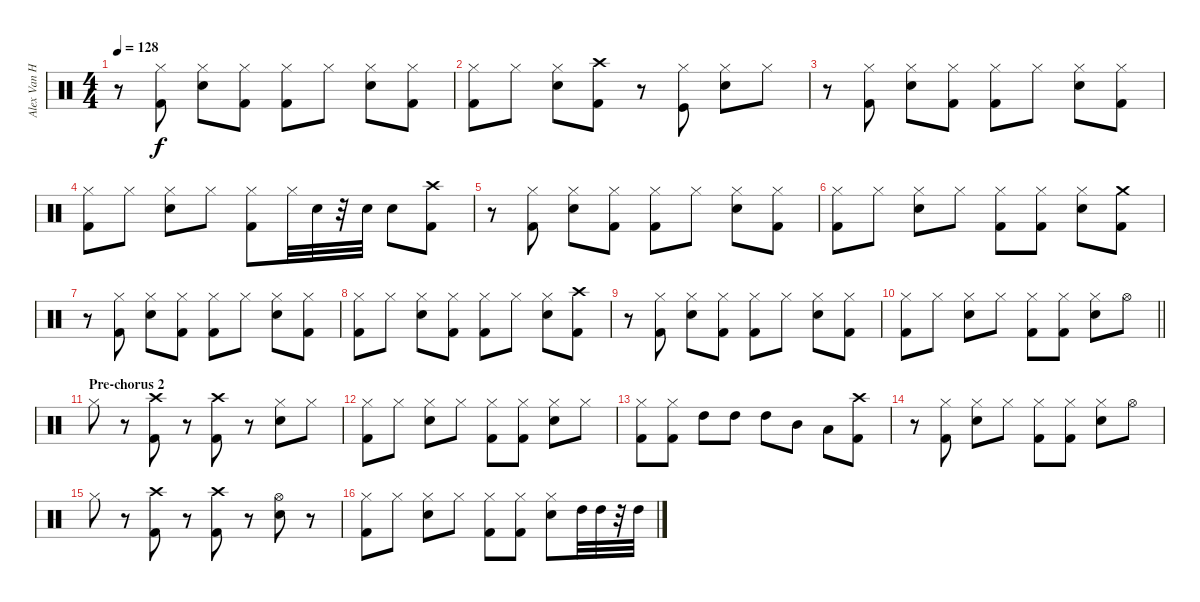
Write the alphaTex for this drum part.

\track ("Alex Van Halen" "Alex Van H") {instrument percussion}
\staff {score}
\articulation defaults
\ts (4 4)
\tempo 128
\clef neutral
\ks c
r.8{dy f} ("Kick (hit) 2" "Hi-Hat (closed)").8 ("Snare (hit) 2" "Hi-Hat (closed)").8 ("Kick (hit) 2" "Hi-Hat (closed)").8 ("Kick (hit) 2" "Hi-Hat (closed)").8 "Hi-Hat (closed)".8 ("Snare (hit) 2" "Hi-Hat (closed)").8 ("Kick (hit) 2" "Hi-Hat (closed)").8 |
("Kick (hit) 2" "Hi-Hat (closed)").8 "Hi-Hat (closed)".8 ("Snare (hit) 2" "Hi-Hat (closed)").8 ("Kick (hit) 2" "Crash high (hit)").8 r.8 ("Kick (hit)" "Hi-Hat (closed)").8 ("Snare (hit) 2" "Hi-Hat (closed)").8 "Hi-Hat (closed)".8 |
r.8 ("Kick (hit) 2" "Hi-Hat (closed)").8 ("Snare (hit) 2" "Hi-Hat (closed)").8 ("Kick (hit) 2" "Hi-Hat (closed)").8 ("Kick (hit) 2" "Hi-Hat (closed)").8 "Hi-Hat (closed)".8 ("Snare (hit) 2" "Hi-Hat (closed)").8 ("Kick (hit) 2" "Hi-Hat (closed)").8 |
("Kick (hit) 2" "Hi-Hat (closed)").8 "Hi-Hat (closed)".8 ("Snare (hit) 2" "Hi-Hat (closed)").8 "Hi-Hat (closed)".8 ("Kick (hit) 2" "Hi-Hat (closed)").8 "Hi-Hat (closed)".32 "Snare (hit) 2".32 r.32 "Snare (hit) 2".32 "Snare (hit) 2".8 ("Crash high (hit)" "Kick (hit) 2").8 |
r.8 ("Kick (hit) 2" "Hi-Hat (closed)").8 ("Snare (hit) 2" "Hi-Hat (closed)").8 ("Kick (hit) 2" "Hi-Hat (closed)").8 ("Kick (hit) 2" "Hi-Hat (closed)").8 "Hi-Hat (closed)".8 ("Snare (hit) 2" "Hi-Hat (closed)").8 ("Kick (hit) 2" "Hi-Hat (closed)").8 |
("Kick (hit) 2" "Hi-Hat (closed)").8 "Hi-Hat (closed)".8 ("Snare (hit) 2" "Hi-Hat (closed)").8 "Hi-Hat (closed)".8 ("Kick (hit) 2" "Hi-Hat (closed)").8 ("Kick (hit) 2" "Hi-Hat (closed)").8 ("Snare (hit) 2" "Hi-Hat (closed)").8 ("Crash medium (hit)" "Kick (hit) 2").8 |
r.8 ("Kick (hit) 2" "Hi-Hat (closed)").8 ("Snare (hit) 2" "Hi-Hat (closed)").8 ("Kick (hit) 2" "Hi-Hat (closed)").8 ("Kick (hit) 2" "Hi-Hat (closed)").8 "Hi-Hat (closed)".8 ("Snare (hit) 2" "Hi-Hat (closed)").8 ("Kick (hit) 2" "Hi-Hat (closed)").8 |
("Kick (hit) 2" "Hi-Hat (closed)").8 "Hi-Hat (closed)".8 ("Snare (hit) 2" "Hi-Hat (closed)").8 ("Kick (hit) 2" "Hi-Hat (closed)").8 ("Kick (hit) 2" "Hi-Hat (closed)").8 "Hi-Hat (closed)".8 ("Snare (hit) 2" "Hi-Hat (closed)").8 ("Kick (hit) 2" "Crash high (hit)").8 |
r.8 ("Kick (hit) 2" "Hi-Hat (closed)").8 ("Snare (hit) 2" "Hi-Hat (closed)").8 ("Kick (hit) 2" "Hi-Hat (closed)").8 ("Kick (hit) 2" "Hi-Hat (closed)").8 "Hi-Hat (closed)".8 ("Snare (hit) 2" "Hi-Hat (closed)").8 ("Kick (hit) 2" "Hi-Hat (closed)").8 |
\barLineRight lightlight
("Kick (hit) 2" "Hi-Hat (closed)").8 "Hi-Hat (closed)".8 ("Snare (hit) 2" "Hi-Hat (closed)").8 "Hi-Hat (closed)".8 ("Kick (hit) 2" "Hi-Hat (closed)").8 ("Kick (hit) 2" "Hi-Hat (closed)").8 ("Snare (hit) 2" "Hi-Hat (closed)").8 "Hi-Hat (open)".8 |
\section ("" "Pre-chorus 2")
"Hi-Hat (closed)".8 r.8 ("Kick (hit) 2" "Crash high (hit)").8 r.8 ("Crash high (hit)" "Kick (hit) 2").8 r.8 ("Snare (hit) 2" "Hi-Hat (closed)").8 "Hi-Hat (closed)".8 |
("Kick (hit) 2" "Hi-Hat (closed)").8 "Hi-Hat (closed)".8 ("Snare (hit) 2" "Hi-Hat (closed)").8 "Hi-Hat (closed)".8 ("Kick (hit) 2" "Hi-Hat (closed)").8 ("Kick (hit) 2" "Hi-Hat (closed)").8 ("Snare (hit) 2" "Hi-Hat (closed)").8 "Hi-Hat (closed)".8 |
("Kick (hit) 2" "Hi-Hat (closed)").8 ("Kick (hit) 2" "Hi-Hat (closed)").8 "High Tom (hit)".8 "High Tom (hit)".8 "High Tom (hit)".8 "Mid Tom (hit)".8 "Low Tom (hit)".8 ("Kick (hit) 2" "Crash high (hit)").8 |
r.8 ("Kick (hit) 2" "Hi-Hat (closed)").8 ("Snare (hit) 2" "Hi-Hat (closed)").8 "Hi-Hat (closed)".8 ("Kick (hit) 2" "Hi-Hat (closed)").8 ("Kick (hit) 2" "Hi-Hat (closed)").8 ("Snare (hit) 2" "Hi-Hat (closed)").8 "Hi-Hat (open)".8 |
"Hi-Hat (closed)".8 r.8 ("Kick (hit) 2" "Crash high (hit)").8 r.8 ("Kick (hit) 2" "Crash high (hit)").8 r.8 ("Snare (hit) 2" "Hi-Hat (open)").8 r.8 |
("Kick (hit) 2" "Hi-Hat (closed)").8 "Hi-Hat (closed)".8 ("Snare (hit) 2" "Hi-Hat (closed)").8 "Hi-Hat (closed)".8 ("Kick (hit) 2" "Hi-Hat (closed)").8 ("Kick (hit) 2" "Hi-Hat (closed)").8 ("Snare (hit) 2" "Hi-Hat (closed)").8 "High Tom (hit)".32 "High Tom (hit)".32 r.32 "High Tom (hit)".32
